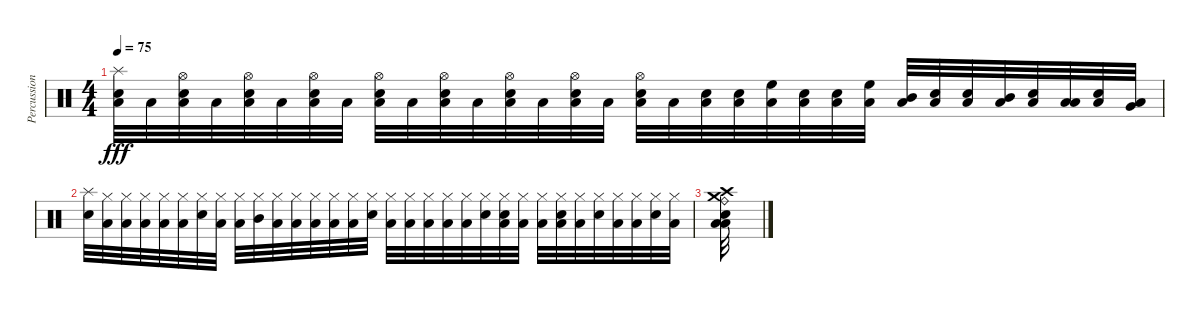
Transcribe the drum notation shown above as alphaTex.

\track ("Percussion" "Percussion") {instrument percussion}
\staff {score}
\articulation defaults
\ts (4 4)
\tempo 75
\clef neutral
\ks c
("Splash (hit)" "Snare (hit) 2" "Low Floor Tom (hit)").32{dy fff} "Low Floor Tom (hit)".32 ("Hi-Hat (open)" "Snare (hit) 2" "Low Floor Tom (hit)").32 "Low Floor Tom (hit)".32 ("Hi-Hat (open)" "Snare (hit) 2" "Low Floor Tom (hit)").32 "Low Floor Tom (hit)".32 ("Hi-Hat (open)" "Snare (hit) 2" "Low Floor Tom (hit)").32 "Low Floor Tom (hit)".32 ("Hi-Hat (open)" "Snare (hit) 2" "Low Floor Tom (hit)").32 "Low Floor Tom (hit)".32 ("Hi-Hat (open)" "Snare (hit) 2" "Low Floor Tom (hit)").32 "Low Floor Tom (hit)".32 ("Hi-Hat (open)" "Snare (hit) 2" "Low Floor Tom (hit)").32 "Low Floor Tom (hit)".32 ("Hi-Hat (open)" "Snare (hit) 2" "Low Floor Tom (hit)").32 "Low Floor Tom (hit)".32 ("Hi-Hat (open)" "Snare (hit) 2" "Low Floor Tom (hit)").32 "Low Floor Tom (hit)".32 ("Snare (hit) 2" "Low Floor Tom (hit)").32 ("Snare (hit) 2" "Low Floor Tom (hit)").32 ("High Floor Tom (hit)" "Low Floor Tom (hit)").32 ("Snare (hit) 2" "Low Floor Tom (hit)").32 ("Snare (hit) 2" "Low Floor Tom (hit)").32 ("High Floor Tom (hit)" "Low Floor Tom (hit)").32 ("Mid Tom (hit)" "Low Floor Tom (hit)").32 ("Snare (hit) 2" "Low Floor Tom (hit)").32 ("Snare (hit) 2" "Low Floor Tom (hit)").32 ("Mid Tom (hit)" "Low Floor Tom (hit)").32 ("Snare (hit) 2" "Low Floor Tom (hit)").32 ("Low Tom (hit)" "Low Floor Tom (hit)").32 ("Snare (hit) 2" "Low Floor Tom (hit)").32 ("Very Low Tom (hit)" "Low Floor Tom (hit)").32 |
("Splash (hit)" "Snare (hit) 2").32 ("Hi-Hat (closed)" "Low Floor Tom (hit)").32 ("Hi-Hat (closed)" "Low Floor Tom (hit)").32 ("Hi-Hat (closed)" "Low Tom (hit)").32 ("Hi-Hat (closed)" "Low Floor Tom (hit)").32 ("Hi-Hat (closed)" "Low Floor Tom (hit)").32 ("Hi-Hat (closed)" "Snare (hit) 2").32 ("Hi-Hat (closed)" "Low Floor Tom (hit)").32 ("Hi-Hat (closed)" "Low Floor Tom (hit)").32 ("Hi-Hat (closed)" "Mid Tom (hit)").32 ("Hi-Hat (closed)" "Low Floor Tom (hit)").32 ("Hi-Hat (closed)" "Low Floor Tom (hit)").32 ("Hi-Hat (closed)" "Low Tom (hit)").32 ("Hi-Hat (closed)" "Low Floor Tom (hit)").32 ("Hi-Hat (closed)" "Low Floor Tom (hit)").32 ("Hi-Hat (closed)" "Snare (hit) 2").32 ("Hi-Hat (closed)" "Low Floor Tom (hit)").32 ("Hi-Hat (closed)" "Low Floor Tom (hit)").32 ("Hi-Hat (closed)" "Low Tom (hit)").32 ("Hi-Hat (closed)" "Low Floor Tom (hit)").32 ("Hi-Hat (closed)" "Low Floor Tom (hit)").32 ("Hi-Hat (closed)" "Snare (hit) 2").32 ("Hi-Hat (closed)" "Snare (hit) 2" "Low Floor Tom (hit)").32 ("Hi-Hat (closed)" "Low Floor Tom (hit)").32 ("Hi-Hat (closed)" "Low Floor Tom (hit)").32 ("Hi-Hat (closed)" "Snare (hit) 2" "Low Floor Tom (hit)").32 ("Hi-Hat (closed)" "Low Floor Tom (hit)").32 ("Hi-Hat (closed)" "Snare (hit) 2").32 ("Hi-Hat (closed)" "Low Floor Tom (hit)").32 ("Hi-Hat (closed)" "Low Floor Tom (hit)").32 ("Hi-Hat (closed)" "Snare (hit) 2").32 ("Hi-Hat (closed)" "Low Floor Tom (hit)").32 |
("Ride (bell)" "Crash medium (hit)" "Crash high (hit)" "Electric Snare (hit)" "Low Floor Tom (hit)" "Low Floor Tom (hit)").32
